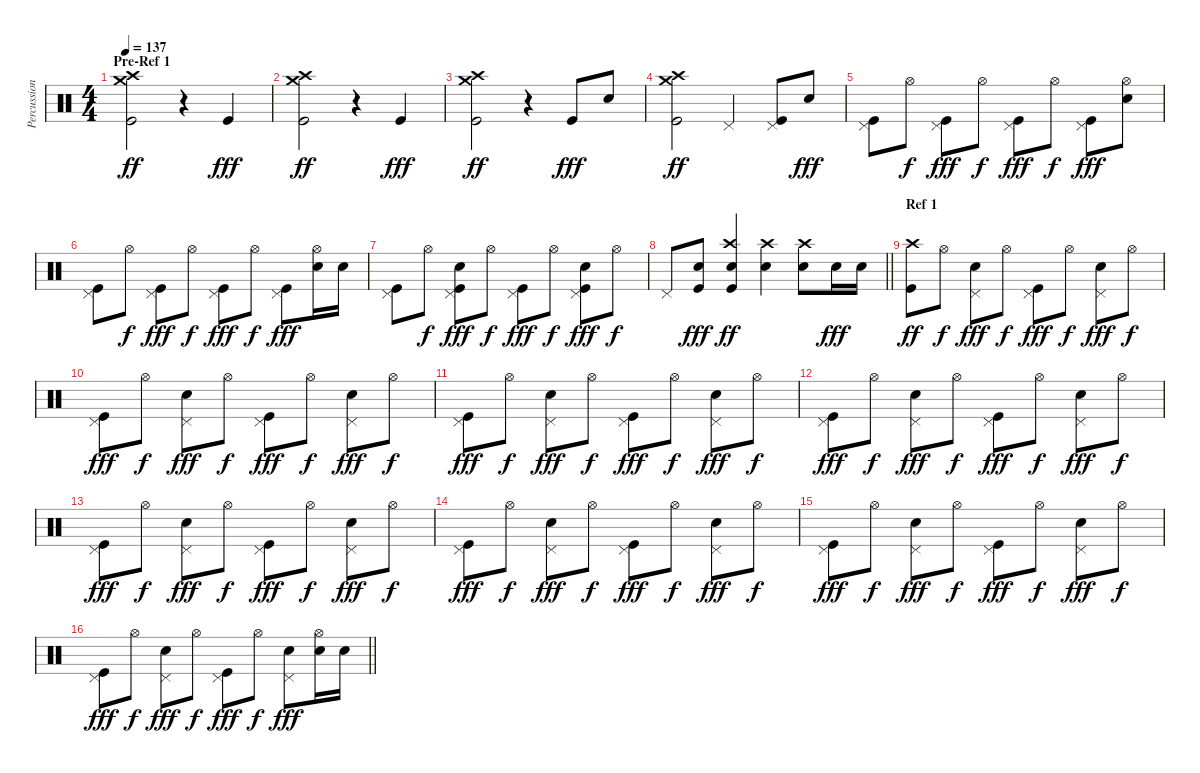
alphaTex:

\track ("Percussions" "Percussion") {instrument percussion}
\staff {score}
\articulation defaults
\ts (4 4)
\section ("" "Pre-Ref 1")
\tempo 137
\clef neutral
\ks c
("Kick (hit)" "Crash medium (hit)" "Crash high (hit)").2{dy ff} r.4 "Kick (hit)".4{dy fff} |
("Kick (hit)" "Crash medium (hit)" "Crash high (hit)").2{dy ff} r.4 "Kick (hit)".4{dy fff} |
("Kick (hit)" "Crash medium (hit)" "Crash high (hit)").2{dy ff} r.4 "Kick (hit)".8{dy fff} "Electric Snare (hit)".8 |
("Kick (hit)" "Crash medium (hit)" "Crash high (hit)").2{dy ff} "Pedal Hi-Hat (hit)".4 ("Kick (hit)" "Pedal Hi-Hat (hit)").8 "Electric Snare (hit)".8{dy fff} |
("Kick (hit)" "Pedal Hi-Hat (hit)").8 "Hi-Hat (open)".8{dy f} ("Kick (hit)" "Pedal Hi-Hat (hit)").8{dy fff} "Hi-Hat (open)".8{dy f} ("Kick (hit)" "Pedal Hi-Hat (hit)").8{dy fff} "Hi-Hat (open)".8{dy f} ("Kick (hit)" "Pedal Hi-Hat (hit)").8{dy fff} ("Electric Snare (hit)" "Hi-Hat (open)").8 |
("Kick (hit)" "Pedal Hi-Hat (hit)").8 "Hi-Hat (open)".8{dy f} ("Kick (hit)" "Pedal Hi-Hat (hit)").8{dy fff} "Hi-Hat (open)".8{dy f} ("Kick (hit)" "Pedal Hi-Hat (hit)").8{dy fff} "Hi-Hat (open)".8{dy f} ("Kick (hit)" "Pedal Hi-Hat (hit)").8{dy fff} ("Electric Snare (hit)" "Hi-Hat (open)").16 "Electric Snare (hit)".16 |
("Kick (hit)" "Pedal Hi-Hat (hit)").8 "Hi-Hat (open)".8{dy f} ("Kick (hit)" "Electric Snare (hit)" "Pedal Hi-Hat (hit)").8{dy fff} "Hi-Hat (open)".8{dy f} ("Kick (hit)" "Pedal Hi-Hat (hit)").8{dy fff} "Hi-Hat (open)".8{dy f} ("Kick (hit)" "Electric Snare (hit)" "Pedal Hi-Hat (hit)").8{dy fff} "Hi-Hat (open)".8{dy f} |
\barLineRight lightlight "Pedal Hi-Hat (hit)".8
("Kick (hit)" "Electric Snare (hit)").8{dy fff} ("Kick (hit)" "Electric Snare (hit)" "Crash high (hit)").4{dy ff} ("Electric Snare (hit)" "Crash high (hit)").4 ("Electric Snare (hit)" "Crash high (hit)").8 "Electric Snare (hit)".16{dy fff} "Electric Snare (hit)".16 |
\section ("" "Ref 1")
("Kick (hit)" "Crash high (hit)").8{dy ff} "Hi-Hat (open)".8{dy f} ("Electric Snare (hit)" "Pedal Hi-Hat (hit)").8{dy fff} "Hi-Hat (open)".8{dy f} ("Kick (hit)" "Pedal Hi-Hat (hit)").8{dy fff} "Hi-Hat (open)".8{dy f} ("Electric Snare (hit)" "Pedal Hi-Hat (hit)").8{dy fff} "Hi-Hat (open)".8{dy f} |
("Kick (hit)" "Pedal Hi-Hat (hit)").8{dy fff} "Hi-Hat (open)".8{dy f} ("Electric Snare (hit)" "Pedal Hi-Hat (hit)").8{dy fff} "Hi-Hat (open)".8{dy f} ("Kick (hit)" "Pedal Hi-Hat (hit)").8{dy fff} "Hi-Hat (open)".8{dy f} ("Electric Snare (hit)" "Pedal Hi-Hat (hit)").8{dy fff} "Hi-Hat (open)".8{dy f} |
("Kick (hit)" "Pedal Hi-Hat (hit)").8{dy fff} "Hi-Hat (open)".8{dy f} ("Electric Snare (hit)" "Pedal Hi-Hat (hit)").8{dy fff} "Hi-Hat (open)".8{dy f} ("Kick (hit)" "Pedal Hi-Hat (hit)").8{dy fff} "Hi-Hat (open)".8{dy f} ("Electric Snare (hit)" "Pedal Hi-Hat (hit)").8{dy fff} "Hi-Hat (open)".8{dy f} |
("Kick (hit)" "Pedal Hi-Hat (hit)").8{dy fff} "Hi-Hat (open)".8{dy f} ("Electric Snare (hit)" "Pedal Hi-Hat (hit)").8{dy fff} "Hi-Hat (open)".8{dy f} ("Kick (hit)" "Pedal Hi-Hat (hit)").8{dy fff} "Hi-Hat (open)".8{dy f} ("Electric Snare (hit)" "Pedal Hi-Hat (hit)").8{dy fff} "Hi-Hat (open)".8{dy f} |
("Kick (hit)" "Pedal Hi-Hat (hit)").8{dy fff} "Hi-Hat (open)".8{dy f} ("Electric Snare (hit)" "Pedal Hi-Hat (hit)").8{dy fff} "Hi-Hat (open)".8{dy f} ("Kick (hit)" "Pedal Hi-Hat (hit)").8{dy fff} "Hi-Hat (open)".8{dy f} ("Electric Snare (hit)" "Pedal Hi-Hat (hit)").8{dy fff} "Hi-Hat (open)".8{dy f} |
("Kick (hit)" "Pedal Hi-Hat (hit)").8{dy fff} "Hi-Hat (open)".8{dy f} ("Electric Snare (hit)" "Pedal Hi-Hat (hit)").8{dy fff} "Hi-Hat (open)".8{dy f} ("Kick (hit)" "Pedal Hi-Hat (hit)").8{dy fff} "Hi-Hat (open)".8{dy f} ("Electric Snare (hit)" "Pedal Hi-Hat (hit)").8{dy fff} "Hi-Hat (open)".8{dy f} |
("Kick (hit)" "Pedal Hi-Hat (hit)").8{dy fff} "Hi-Hat (open)".8{dy f} ("Electric Snare (hit)" "Pedal Hi-Hat (hit)").8{dy fff} "Hi-Hat (open)".8{dy f} ("Kick (hit)" "Pedal Hi-Hat (hit)").8{dy fff} "Hi-Hat (open)".8{dy f} ("Electric Snare (hit)" "Pedal Hi-Hat (hit)").8{dy fff} "Hi-Hat (open)".8{dy f} |
\barLineRight lightlight
("Kick (hit)" "Pedal Hi-Hat (hit)").8{dy fff} "Hi-Hat (open)".8{dy f} ("Electric Snare (hit)" "Pedal Hi-Hat (hit)").8{dy fff} "Hi-Hat (open)".8{dy f} ("Kick (hit)" "Pedal Hi-Hat (hit)").8{dy fff} "Hi-Hat (open)".8{dy f} ("Electric Snare (hit)" "Pedal Hi-Hat (hit)").8{dy fff} ("Electric Snare (hit)" "Hi-Hat (open)").16 "Electric Snare (hit)".16
